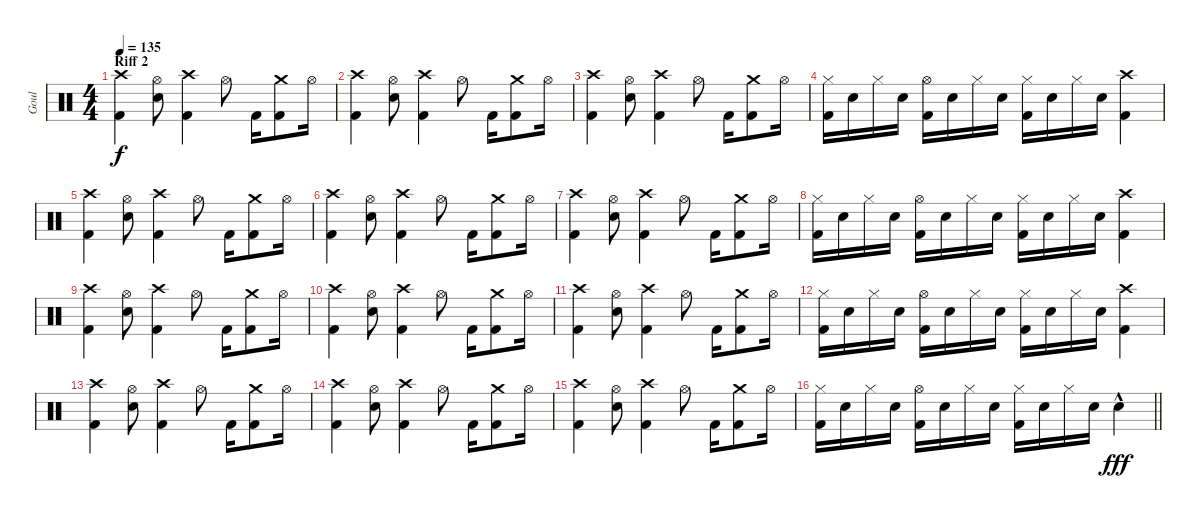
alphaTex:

\track ("Goul" "Goul") {instrument percussion}
\staff {score}
\articulation defaults
\ts (4 4)
\section ("" "Riff 2")
\tempo 135
\clef neutral
\ks c
("Crash high (hit)" "Kick (hit) 2").4{dy f} ("Hi-Hat (open)" "Electric Snare (hit)").8 ("Crash high (hit)" "Kick (hit) 2").4 "Hi-Hat (open)".8 "Kick (hit) 2".16 ("Crash medium (hit)" "Kick (hit) 2").8 "Hi-Hat (open)".16 |
("Crash high (hit)" "Kick (hit) 2").4 ("Hi-Hat (open)" "Electric Snare (hit)").8 ("Crash high (hit)" "Kick (hit) 2").4 "Hi-Hat (open)".8 "Kick (hit) 2".16 ("Crash medium (hit)" "Kick (hit) 2").8 "Hi-Hat (open)".16 |
("Crash high (hit)" "Kick (hit) 2").4 ("Hi-Hat (open)" "Electric Snare (hit)").8 ("Crash high (hit)" "Kick (hit) 2").4 "Hi-Hat (open)".8 "Kick (hit) 2".16 ("Crash medium (hit)" "Kick (hit) 2").8 "Hi-Hat (open)".16 |
("Hi-Hat (closed)" "Kick (hit) 2").16 "Electric Snare (hit)".16 "Hi-Hat (closed)".16 "Electric Snare (hit)".16 ("Hi-Hat (open)" "Kick (hit) 2").16 "Electric Snare (hit)".16 "Hi-Hat (closed)".16 "Electric Snare (hit)".16 ("Hi-Hat (closed)" "Kick (hit) 2").16 "Electric Snare (hit)".16 "Hi-Hat (closed)".16 "Electric Snare (hit)".16 ("Crash high (hit)" "Kick (hit) 2").4 |
("Crash high (hit)" "Kick (hit) 2").4 ("Hi-Hat (open)" "Electric Snare (hit)").8 ("Crash high (hit)" "Kick (hit) 2").4 "Hi-Hat (open)".8 "Kick (hit) 2".16 ("Crash medium (hit)" "Kick (hit) 2").8 "Hi-Hat (open)".16 |
("Crash high (hit)" "Kick (hit) 2").4 ("Hi-Hat (open)" "Electric Snare (hit)").8 ("Crash high (hit)" "Kick (hit) 2").4 "Hi-Hat (open)".8 "Kick (hit) 2".16 ("Crash medium (hit)" "Kick (hit) 2").8 "Hi-Hat (open)".16 |
("Crash high (hit)" "Kick (hit) 2").4 ("Hi-Hat (open)" "Electric Snare (hit)").8 ("Crash high (hit)" "Kick (hit) 2").4 "Hi-Hat (open)".8 "Kick (hit) 2".16 ("Crash medium (hit)" "Kick (hit) 2").8 "Hi-Hat (open)".16 |
("Hi-Hat (closed)" "Kick (hit) 2").16 "Electric Snare (hit)".16 "Hi-Hat (closed)".16 "Electric Snare (hit)".16 ("Hi-Hat (open)" "Kick (hit) 2").16 "Electric Snare (hit)".16 "Hi-Hat (closed)".16 "Electric Snare (hit)".16 ("Hi-Hat (closed)" "Kick (hit) 2").16 "Electric Snare (hit)".16 "Hi-Hat (closed)".16 "Electric Snare (hit)".16 ("Crash high (hit)" "Kick (hit) 2").4 |
("Crash high (hit)" "Kick (hit) 2").4 ("Hi-Hat (open)" "Electric Snare (hit)").8 ("Crash high (hit)" "Kick (hit) 2").4 "Hi-Hat (open)".8 "Kick (hit) 2".16 ("Crash medium (hit)" "Kick (hit) 2").8 "Hi-Hat (open)".16 |
("Crash high (hit)" "Kick (hit) 2").4 ("Hi-Hat (open)" "Electric Snare (hit)").8 ("Crash high (hit)" "Kick (hit) 2").4 "Hi-Hat (open)".8 "Kick (hit) 2".16 ("Crash medium (hit)" "Kick (hit) 2").8 "Hi-Hat (open)".16 |
("Crash high (hit)" "Kick (hit) 2").4 ("Hi-Hat (open)" "Electric Snare (hit)").8 ("Crash high (hit)" "Kick (hit) 2").4 "Hi-Hat (open)".8 "Kick (hit) 2".16 ("Crash medium (hit)" "Kick (hit) 2").8 "Hi-Hat (open)".16 |
("Hi-Hat (closed)" "Kick (hit) 2").16 "Electric Snare (hit)".16 "Hi-Hat (closed)".16 "Electric Snare (hit)".16 ("Hi-Hat (open)" "Kick (hit) 2").16 "Electric Snare (hit)".16 "Hi-Hat (closed)".16 "Electric Snare (hit)".16 ("Hi-Hat (closed)" "Kick (hit) 2").16 "Electric Snare (hit)".16 "Hi-Hat (closed)".16 "Electric Snare (hit)".16 ("Crash high (hit)" "Kick (hit) 2").4 |
("Crash high (hit)" "Kick (hit) 2").4 ("Hi-Hat (open)" "Electric Snare (hit)").8 ("Crash high (hit)" "Kick (hit) 2").4 "Hi-Hat (open)".8 "Kick (hit) 2".16 ("Crash medium (hit)" "Kick (hit) 2").8 "Hi-Hat (open)".16 |
("Crash high (hit)" "Kick (hit) 2").4 ("Hi-Hat (open)" "Electric Snare (hit)").8 ("Crash high (hit)" "Kick (hit) 2").4 "Hi-Hat (open)".8 "Kick (hit) 2".16 ("Crash medium (hit)" "Kick (hit) 2").8 "Hi-Hat (open)".16 |
("Crash high (hit)" "Kick (hit) 2").4 ("Hi-Hat (open)" "Electric Snare (hit)").8 ("Crash high (hit)" "Kick (hit) 2").4 "Hi-Hat (open)".8 "Kick (hit) 2".16 ("Crash medium (hit)" "Kick (hit) 2").8 "Hi-Hat (open)".16 |
\barLineRight lightlight
("Hi-Hat (closed)" "Kick (hit) 2").16 "Electric Snare (hit)".16 "Hi-Hat (closed)".16 "Electric Snare (hit)".16 ("Hi-Hat (open)" "Kick (hit) 2").16 "Electric Snare (hit)".16 "Hi-Hat (closed)".16 "Electric Snare (hit)".16 ("Hi-Hat (closed)" "Kick (hit) 2").16 "Electric Snare (hit)".16 "Hi-Hat (closed)".16 "Electric Snare (hit)".16 "Electric Snare (hit)"{hac}.4{dy fff}
